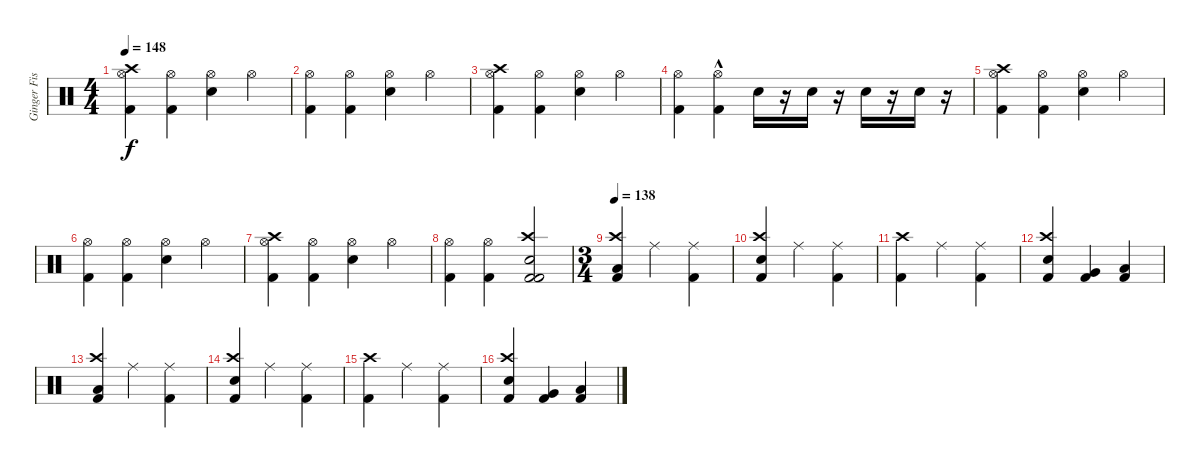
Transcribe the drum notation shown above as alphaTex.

\track ("Ginger Fish (Drums)" "Ginger Fis") {instrument percussion}
\staff {score}
\articulation defaults
\ts (4 4)
\tempo 148
\clef neutral
\ks c
("Hi-Hat (open)" "Kick (hit) 2" "Crash high (hit)").4{dy f} ("Kick (hit) 2" "Hi-Hat (open)").4 ("Hi-Hat (open)" "Snare (hit) 2").4 "Hi-Hat (open)".4 |
("Hi-Hat (open)" "Kick (hit) 2").4 ("Hi-Hat (open)" "Kick (hit) 2").4 ("Hi-Hat (open)" "Snare (hit) 2").4 "Hi-Hat (open)".4 |
("Crash high (hit)" "Hi-Hat (open)" "Kick (hit) 2").4 ("Hi-Hat (open)" "Kick (hit) 2").4 ("Hi-Hat (open)" "Snare (hit) 2").4 "Hi-Hat (open)".4 |
("Hi-Hat (open)" "Kick (hit) 2").4 ("Hi-Hat (open)"{hac} "Kick (hit) 2").4 "Snare (hit) 2".16 r.16 "Snare (hit) 2".16 r.16 "Snare (hit) 2".16 r.16 "Snare (hit) 2".16 r.16 |
("Kick (hit) 2" "Hi-Hat (open)" "Crash high (hit)").4 ("Kick (hit) 2" "Hi-Hat (open)").4 ("Snare (hit) 2" "Hi-Hat (open)").4 "Hi-Hat (open)".4 |
("Hi-Hat (open)" "Kick (hit) 2").4 ("Kick (hit) 2" "Hi-Hat (open)").4 ("Hi-Hat (open)" "Snare (hit) 2").4 "Hi-Hat (open)".4 |
("Hi-Hat (open)" "Kick (hit) 2" "Crash high (hit)").4 ("Hi-Hat (open)" "Kick (hit) 2").4 ("Hi-Hat (open)" "Snare (hit) 2").4 "Hi-Hat (open)".4 |
("Hi-Hat (open)" "Kick (hit) 2").4 ("Hi-Hat (open)" "Kick (hit) 2").4 ("Snare (hit) 2" "Kick (hit) 2" "Kick (hit) 2" "Crash high (hit)").2 |
\ts (3 4)
\tempo 138
("Kick (hit) 2" "Low Floor Tom (hit)" "Crash high (hit)").4 "Ride (middle)".4 ("Ride (middle)" "Kick (hit) 2").4 |
("Kick (hit) 2" "Snare (hit) 2" "Crash high (hit)").4 "Ride (middle)".4 ("Kick (hit) 2" "Ride (middle)").4 |
("Kick (hit) 2" "Crash high (hit)").4 "Ride (middle)".4 ("Kick (hit) 2" "Ride (middle)").4 |
("Snare (hit) 2" "Kick (hit) 2" "Crash high (hit)").4 ("Very Low Tom (hit)" "Kick (hit) 2").4 ("Low Floor Tom (hit)" "Kick (hit) 2").4 |
("Kick (hit) 2" "Low Floor Tom (hit)" "Crash high (hit)").4 "Ride (middle)".4 ("Ride (middle)" "Kick (hit) 2").4 |
("Kick (hit) 2" "Snare (hit) 2" "Crash high (hit)").4 "Ride (middle)".4 ("Kick (hit) 2" "Ride (middle)").4 |
("Kick (hit) 2" "Crash high (hit)").4 "Ride (middle)".4 ("Kick (hit) 2" "Ride (middle)").4 |
("Snare (hit) 2" "Kick (hit) 2" "Crash high (hit)").4 ("Very Low Tom (hit)" "Kick (hit) 2").4 ("Low Floor Tom (hit)" "Kick (hit) 2").4
